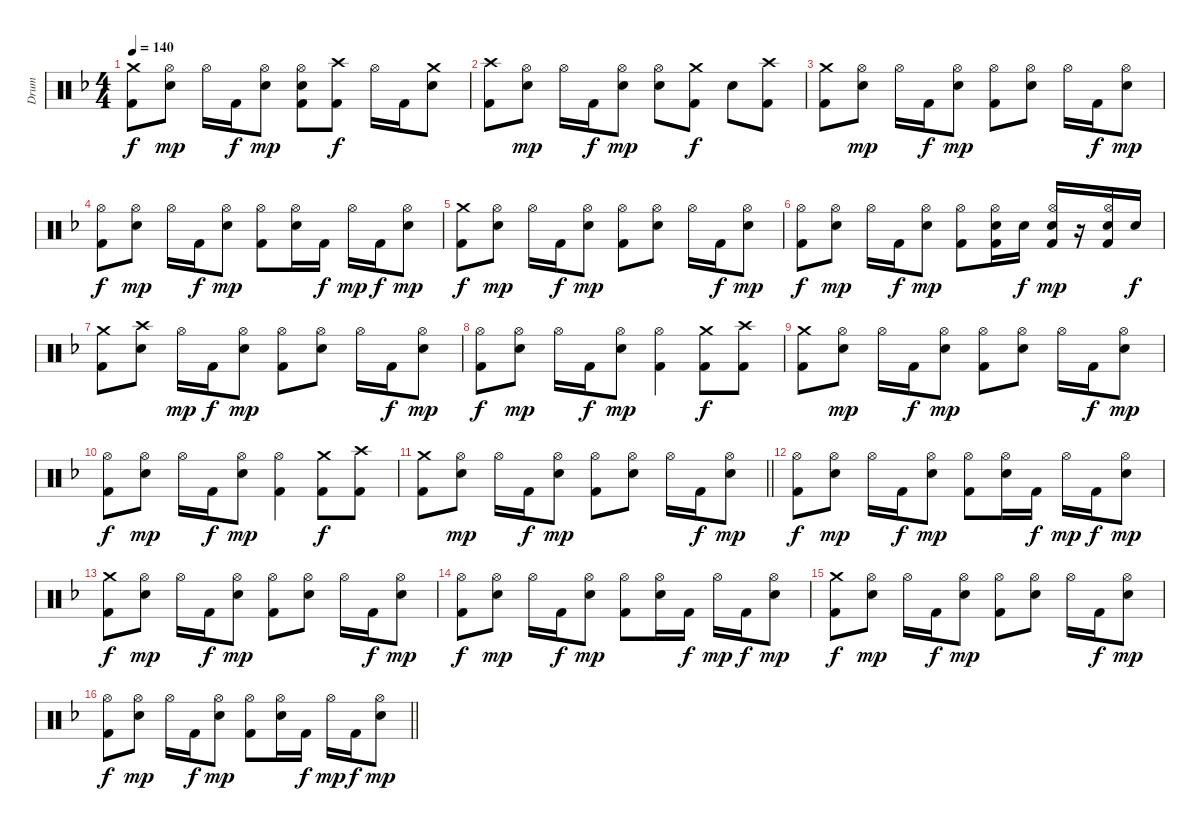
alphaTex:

\track ("Drum" "Drum") {instrument percussion}
\staff {score}
\articulation defaults
\ts (4 4)
\tempo 140
\clef neutral
\ks dminor
("Crash medium (hit)" "Kick (hit) 2").8{dy f} ("Hi-Hat (open)" "Snare (hit) 2").8{dy mp} "Hi-Hat (open)".16 "Kick (hit) 2".16{dy f} ("Hi-Hat (open)" "Snare (hit) 2").8{dy mp} ("Hi-Hat (open)" "Snare (hit) 2" "Kick (hit) 2").8 ("Crash high (hit)" "Kick (hit) 2").8{dy f} "Hi-Hat (open)".16 "Kick (hit) 2".16 ("Crash medium (hit)" "Snare (hit) 2").8 |
("Crash high (hit)" "Kick (hit) 2").8 ("Hi-Hat (open)" "Snare (hit) 2").8{dy mp} "Hi-Hat (open)".16 "Kick (hit) 2".16{dy f} ("Hi-Hat (open)" "Snare (hit) 2").8{dy mp} ("Hi-Hat (open)" "Snare (hit) 2").8 ("Crash medium (hit)" "Kick (hit) 2").8{dy f} "Snare (hit) 2".8 ("Crash high (hit)" "Kick (hit) 2").8 |
("Crash medium (hit)" "Kick (hit) 2").8 ("Hi-Hat (open)" "Snare (hit) 2").8{dy mp} "Hi-Hat (open)".16 "Kick (hit) 2".16{dy f} ("Hi-Hat (open)" "Snare (hit) 2").8{dy mp} ("Hi-Hat (open)" "Kick (hit) 2").8 ("Hi-Hat (open)" "Snare (hit) 2").8 "Hi-Hat (open)".16 "Kick (hit) 2".16{dy f} ("Hi-Hat (open)" "Snare (hit) 2").8{dy mp} |
("Hi-Hat (open)" "Kick (hit) 2").8{dy f} ("Hi-Hat (open)" "Snare (hit) 2").8{dy mp} "Hi-Hat (open)".16 "Kick (hit) 2".16{dy f} ("Hi-Hat (open)" "Snare (hit) 2").8{dy mp} ("Hi-Hat (open)" "Kick (hit) 2").8 ("Hi-Hat (open)" "Snare (hit) 2").16 "Kick (hit) 2".16{dy f} "Hi-Hat (open)".16{dy mp} "Kick (hit) 2".16{dy f} ("Hi-Hat (open)" "Snare (hit) 2").8{dy mp} |
("Crash medium (hit)" "Kick (hit) 2").8{dy f} ("Hi-Hat (open)" "Snare (hit) 2").8{dy mp} "Hi-Hat (open)".16 "Kick (hit) 2".16{dy f} ("Hi-Hat (open)" "Snare (hit) 2").8{dy mp} ("Hi-Hat (open)" "Kick (hit) 2").8 ("Hi-Hat (open)" "Snare (hit) 2").8 "Hi-Hat (open)".16 "Kick (hit) 2".16{dy f} ("Hi-Hat (open)" "Snare (hit) 2").8{dy mp} |
("Hi-Hat (open)" "Kick (hit) 2").8{dy f} ("Hi-Hat (open)" "Snare (hit) 2").8{dy mp} "Hi-Hat (open)".16 "Kick (hit) 2".16{dy f} ("Hi-Hat (open)" "Snare (hit) 2").8{dy mp} ("Hi-Hat (open)" "Kick (hit) 2").8 ("Hi-Hat (open)" "Snare (hit) 2" "Kick (hit) 2").16 "Snare (hit) 2".16{dy f} ("Hi-Hat (open)" "Snare (hit) 2" "Kick (hit) 2").16{dy mp} r.16 ("Hi-Hat (open)" "Snare (hit) 2" "Kick (hit) 2").16 "Snare (hit) 2".16{dy f} |
("Crash medium (hit)" "Kick (hit) 2").8 ("Crash high (hit)" "Snare (hit) 2").8 "Hi-Hat (open)".16{dy mp} "Kick (hit) 2".16{dy f} ("Hi-Hat (open)" "Snare (hit) 2").8{dy mp} ("Hi-Hat (open)" "Kick (hit) 2").8 ("Hi-Hat (open)" "Snare (hit) 2").8 "Hi-Hat (open)".16 "Kick (hit) 2".16{dy f} ("Hi-Hat (open)" "Snare (hit) 2").8{dy mp} |
("Hi-Hat (open)" "Kick (hit) 2").8{dy f} ("Hi-Hat (open)" "Snare (hit) 2").8{dy mp} "Hi-Hat (open)".16 "Kick (hit) 2".16{dy f} ("Hi-Hat (open)" "Snare (hit) 2").8{dy mp} ("Hi-Hat (open)" "Kick (hit) 2").4 ("Crash medium (hit)" "Kick (hit) 2").8{dy f} ("Crash high (hit)" "Kick (hit) 2").8 |
("Crash medium (hit)" "Kick (hit) 2").8 ("Hi-Hat (open)" "Snare (hit) 2").8{dy mp} "Hi-Hat (open)".16 "Kick (hit) 2".16{dy f} ("Hi-Hat (open)" "Snare (hit) 2").8{dy mp} ("Hi-Hat (open)" "Kick (hit) 2").8 ("Hi-Hat (open)" "Snare (hit) 2").8 "Hi-Hat (open)".16 "Kick (hit) 2".16{dy f} ("Hi-Hat (open)" "Snare (hit) 2").8{dy mp} |
("Hi-Hat (open)" "Kick (hit) 2").8{dy f} ("Hi-Hat (open)" "Snare (hit) 2").8{dy mp} "Hi-Hat (open)".16 "Kick (hit) 2".16{dy f} ("Hi-Hat (open)" "Snare (hit) 2").8{dy mp} ("Hi-Hat (open)" "Kick (hit) 2").4 ("Crash medium (hit)" "Kick (hit) 2").8{dy f} ("Crash high (hit)" "Kick (hit) 2").8 |
\barLineRight lightlight
("Crash medium (hit)" "Kick (hit) 2").8 ("Hi-Hat (open)" "Snare (hit) 2").8{dy mp} "Hi-Hat (open)".16 "Kick (hit) 2".16{dy f} ("Hi-Hat (open)" "Snare (hit) 2").8{dy mp} ("Hi-Hat (open)" "Kick (hit) 2").8 ("Hi-Hat (open)" "Snare (hit) 2").8 "Hi-Hat (open)".16 "Kick (hit) 2".16{dy f} ("Hi-Hat (open)" "Snare (hit) 2").8{dy mp} |
\section ("" "")
("Hi-Hat (open)" "Kick (hit) 2").8{dy f} ("Hi-Hat (open)" "Snare (hit) 2").8{dy mp} "Hi-Hat (open)".16 "Kick (hit) 2".16{dy f} ("Hi-Hat (open)" "Snare (hit) 2").8{dy mp} ("Hi-Hat (open)" "Kick (hit) 2").8 ("Hi-Hat (open)" "Snare (hit) 2").16 "Kick (hit) 2".16{dy f} "Hi-Hat (open)".16{dy mp} "Kick (hit) 2".16{dy f} ("Hi-Hat (open)" "Snare (hit) 2").8{dy mp} |
("Crash medium (hit)" "Kick (hit) 2").8{dy f} ("Hi-Hat (open)" "Snare (hit) 2").8{dy mp} "Hi-Hat (open)".16 "Kick (hit) 2".16{dy f} ("Hi-Hat (open)" "Snare (hit) 2").8{dy mp} ("Hi-Hat (open)" "Kick (hit) 2").8 ("Hi-Hat (open)" "Snare (hit) 2").8 "Hi-Hat (open)".16 "Kick (hit) 2".16{dy f} ("Hi-Hat (open)" "Snare (hit) 2").8{dy mp} |
("Hi-Hat (open)" "Kick (hit) 2").8{dy f} ("Hi-Hat (open)" "Snare (hit) 2").8{dy mp} "Hi-Hat (open)".16 "Kick (hit) 2".16{dy f} ("Hi-Hat (open)" "Snare (hit) 2").8{dy mp} ("Hi-Hat (open)" "Kick (hit) 2").8 ("Hi-Hat (open)" "Snare (hit) 2").16 "Kick (hit) 2".16{dy f} "Hi-Hat (open)".16{dy mp} "Kick (hit) 2".16{dy f} ("Hi-Hat (open)" "Snare (hit) 2").8{dy mp} |
("Crash medium (hit)" "Kick (hit) 2").8{dy f} ("Hi-Hat (open)" "Snare (hit) 2").8{dy mp} "Hi-Hat (open)".16 "Kick (hit) 2".16{dy f} ("Hi-Hat (open)" "Snare (hit) 2").8{dy mp} ("Hi-Hat (open)" "Kick (hit) 2").8 ("Hi-Hat (open)" "Snare (hit) 2").8 "Hi-Hat (open)".16 "Kick (hit) 2".16{dy f} ("Hi-Hat (open)" "Snare (hit) 2").8{dy mp} |
\barLineRight lightlight
("Hi-Hat (open)" "Kick (hit) 2").8{dy f} ("Hi-Hat (open)" "Snare (hit) 2").8{dy mp} "Hi-Hat (open)".16 "Kick (hit) 2".16{dy f} ("Hi-Hat (open)" "Snare (hit) 2").8{dy mp} ("Hi-Hat (open)" "Kick (hit) 2").8 ("Hi-Hat (open)" "Snare (hit) 2").16 "Kick (hit) 2".16{dy f} "Hi-Hat (open)".16{dy mp} "Kick (hit) 2".16{dy f} ("Hi-Hat (open)" "Snare (hit) 2").8{dy mp}
